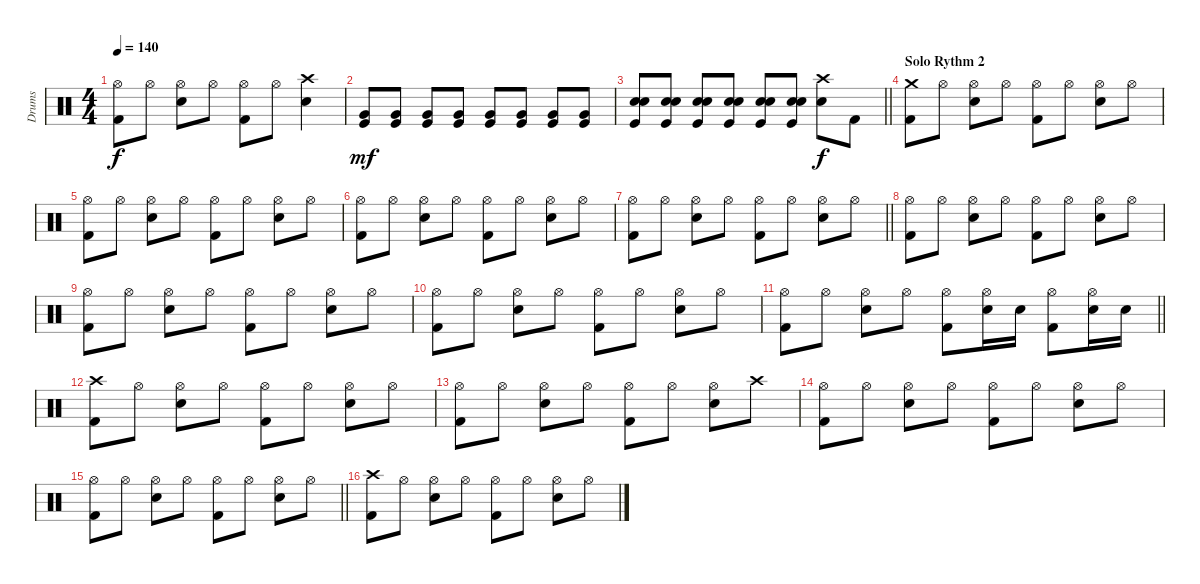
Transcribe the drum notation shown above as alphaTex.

\track ("Drums" "Drums") {instrument percussion}
\staff {score}
\articulation defaults
\ts (4 4)
\tempo 140
\clef neutral
\ks c
("Hi-Hat (open)" "Kick (hit) 2").8{dy f} "Hi-Hat (open)".8 ("Hi-Hat (open)" "Snare (hit) 2").8 "Hi-Hat (open)".8 ("Hi-Hat (open)" "Kick (hit) 2").8 "Hi-Hat (open)".8 ("Crash high (hit)" "Snare (hit) 2").4 |
("Very Low Tom (hit)" "Kick (hit)").8{dy mf} ("Very Low Tom (hit)" "Kick (hit)").8 ("Very Low Tom (hit)" "Kick (hit)").8 ("Very Low Tom (hit)" "Kick (hit)").8 ("Very Low Tom (hit)" "Kick (hit)").8 ("Very Low Tom (hit)" "Kick (hit)").8 ("Very Low Tom (hit)" "Kick (hit)").8 ("Very Low Tom (hit)" "Kick (hit)").8 |
\barLineRight lightlight
("Snare (hit) 2" "Snare (hit) 2" "Kick (hit)").8 ("Snare (hit) 2" "Snare (hit) 2" "Kick (hit)").8 ("Snare (hit) 2" "Snare (hit) 2" "Kick (hit)").8 ("Snare (hit) 2" "Snare (hit) 2" "Kick (hit)").8 ("Snare (hit) 2" "Snare (hit) 2" "Kick (hit)").8 ("Snare (hit) 2" "Snare (hit) 2" "Kick (hit)").8 ("Crash high (hit)" "Snare (hit) 2").8{dy f} "Kick (hit) 2".8 |
\section ("" "Solo Rythm 2")
("Crash medium (hit)" "Kick (hit) 2").8 "Hi-Hat (open)".8 ("Hi-Hat (open)" "Snare (hit) 2").8 "Hi-Hat (open)".8 ("Hi-Hat (open)" "Kick (hit) 2").8 "Hi-Hat (open)".8 ("Hi-Hat (open)" "Snare (hit) 2").8 "Hi-Hat (open)".8 |
("Hi-Hat (open)" "Kick (hit) 2").8 "Hi-Hat (open)".8 ("Hi-Hat (open)" "Snare (hit) 2").8 "Hi-Hat (open)".8 ("Hi-Hat (open)" "Kick (hit) 2").8 "Hi-Hat (open)".8 ("Hi-Hat (open)" "Snare (hit) 2").8 "Hi-Hat (open)".8 |
("Hi-Hat (open)" "Kick (hit) 2").8 "Hi-Hat (open)".8 ("Hi-Hat (open)" "Snare (hit) 2").8 "Hi-Hat (open)".8 ("Hi-Hat (open)" "Kick (hit) 2").8 "Hi-Hat (open)".8 ("Hi-Hat (open)" "Snare (hit) 2").8 "Hi-Hat (open)".8 |
\barLineRight lightlight
("Hi-Hat (open)" "Kick (hit) 2").8 "Hi-Hat (open)".8 ("Hi-Hat (open)" "Snare (hit) 2").8 "Hi-Hat (open)".8 ("Hi-Hat (open)" "Kick (hit) 2").8 "Hi-Hat (open)".8 ("Hi-Hat (open)" "Snare (hit) 2").8 "Hi-Hat (open)".8 |
("Hi-Hat (open)" "Kick (hit) 2").8 "Hi-Hat (open)".8 ("Hi-Hat (open)" "Snare (hit) 2").8 "Hi-Hat (open)".8 ("Hi-Hat (open)" "Kick (hit) 2").8 "Hi-Hat (open)".8 ("Hi-Hat (open)" "Snare (hit) 2").8 "Hi-Hat (open)".8 |
("Hi-Hat (open)" "Kick (hit) 2").8 "Hi-Hat (open)".8 ("Hi-Hat (open)" "Snare (hit) 2").8 "Hi-Hat (open)".8 ("Hi-Hat (open)" "Kick (hit) 2").8 "Hi-Hat (open)".8 ("Hi-Hat (open)" "Snare (hit) 2").8 "Hi-Hat (open)".8 |
("Hi-Hat (open)" "Kick (hit) 2").8 "Hi-Hat (open)".8 ("Hi-Hat (open)" "Snare (hit) 2").8 "Hi-Hat (open)".8 ("Hi-Hat (open)" "Kick (hit) 2").8 "Hi-Hat (open)".8 ("Hi-Hat (open)" "Snare (hit) 2").8 "Hi-Hat (open)".8 |
\barLineRight lightlight
("Hi-Hat (open)" "Kick (hit) 2").8 "Hi-Hat (open)".8 ("Hi-Hat (open)" "Snare (hit) 2").8 "Hi-Hat (open)".8 ("Hi-Hat (open)" "Kick (hit) 2").8 ("Hi-Hat (open)" "Snare (hit) 2").16 "Snare (hit) 2".16 ("Hi-Hat (open)" "Kick (hit) 2").8 ("Hi-Hat (open)" "Snare (hit) 2").16 "Snare (hit) 2".16 |
("Crash high (hit)" "Kick (hit) 2").8 "Hi-Hat (open)".8 ("Hi-Hat (open)" "Snare (hit) 2").8 "Hi-Hat (open)".8 ("Hi-Hat (open)" "Kick (hit) 2").8 "Hi-Hat (open)".8 ("Hi-Hat (open)" "Snare (hit) 2").8 "Hi-Hat (open)".8 |
("Hi-Hat (open)" "Kick (hit) 2").8 "Hi-Hat (open)".8 ("Hi-Hat (open)" "Snare (hit) 2").8 "Hi-Hat (open)".8 ("Hi-Hat (open)" "Kick (hit) 2").8 "Hi-Hat (open)".8 ("Hi-Hat (open)" "Snare (hit) 2").8 "Crash high (hit)".8 |
("Hi-Hat (open)" "Kick (hit) 2").8 "Hi-Hat (open)".8 ("Hi-Hat (open)" "Snare (hit) 2").8 "Hi-Hat (open)".8 ("Hi-Hat (open)" "Kick (hit) 2").8 "Hi-Hat (open)".8 ("Hi-Hat (open)" "Snare (hit) 2").8 "Hi-Hat (open)".8 |
\barLineRight lightlight
("Hi-Hat (open)" "Kick (hit) 2").8 "Hi-Hat (open)".8 ("Hi-Hat (open)" "Snare (hit) 2").8 "Hi-Hat (open)".8 ("Hi-Hat (open)" "Kick (hit) 2").8 "Hi-Hat (open)".8 ("Hi-Hat (open)" "Snare (hit) 2").8 "Hi-Hat (open)".8 |
("Crash high (hit)" "Kick (hit) 2").8 "Hi-Hat (open)".8 ("Hi-Hat (open)" "Snare (hit) 2").8 "Hi-Hat (open)".8 ("Hi-Hat (open)" "Kick (hit) 2").8 "Hi-Hat (open)".8 ("Hi-Hat (open)" "Snare (hit) 2").8 "Hi-Hat (open)".8
